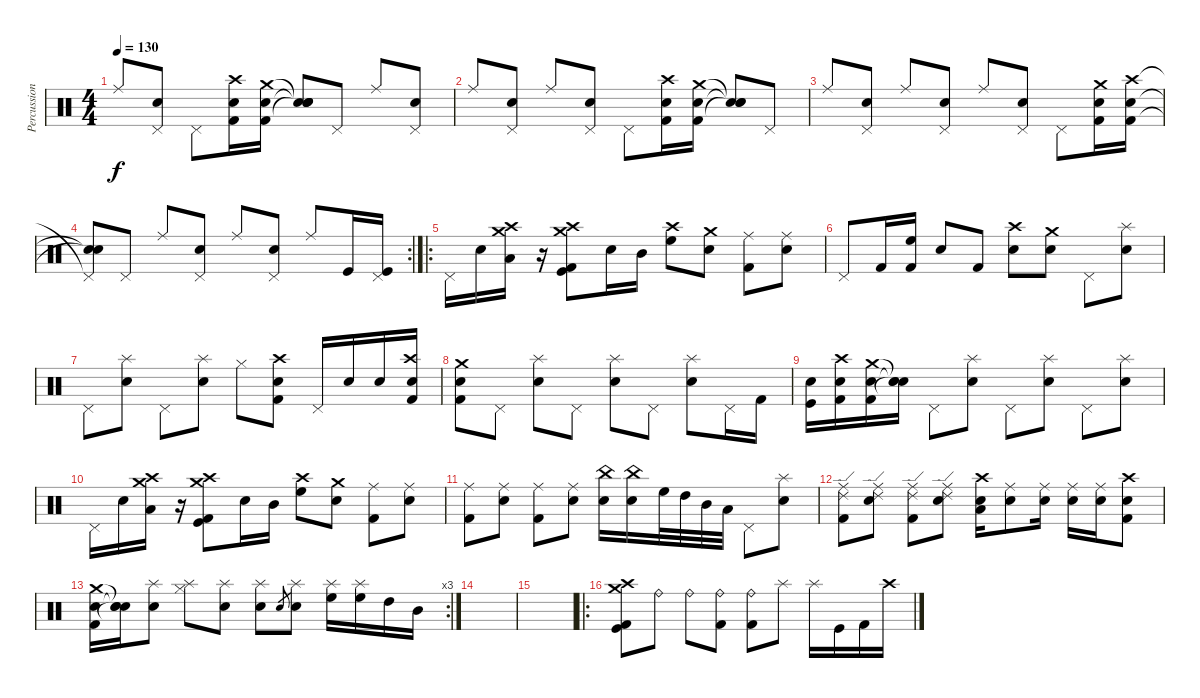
\track ("Percussion" "Percussion") {instrument percussion}
\staff {score}
\articulation defaults
\ts (4 4)
\tempo 130
\clef neutral
\ks c "Ride (middle)".8{dy f}
("Pedal Hi-Hat (hit)" "Electric Snare (hit)").8 "Pedal Hi-Hat (hit)".8 ("Crash high (hit)" "Electric Snare (hit)" "Kick (hit) 2").16 ("Crash medium (hit)" "Electric Snare (hit)" "Kick (hit) 2").16 ("Snare (hit)"{t} "Snare (hit)"{t} "Snare (hit)"{t} "Snare (hit)"{t}).8 "Pedal Hi-Hat (hit)".8 "Ride (middle)".8 ("Pedal Hi-Hat (hit)" "Electric Snare (hit)").8 |
"Ride (middle)".8 ("Pedal Hi-Hat (hit)" "Electric Snare (hit)").8 "Ride (middle)".8 ("Pedal Hi-Hat (hit)" "Electric Snare (hit)").8 "Pedal Hi-Hat (hit)".8 ("Crash high (hit)" "Electric Snare (hit)" "Kick (hit) 2").16 ("Crash medium (hit)" "Electric Snare (hit)" "Kick (hit) 2").16 ("Snare (hit)"{t} "Snare (hit)"{t} "Snare (hit)"{t}).8 "Pedal Hi-Hat (hit)".8 |
"Ride (middle)".8 ("Pedal Hi-Hat (hit)" "Electric Snare (hit)").8 "Ride (middle)".8 ("Pedal Hi-Hat (hit)" "Electric Snare (hit)").8 "Ride (middle)".8 ("Pedal Hi-Hat (hit)" "Electric Snare (hit)").8 "Pedal Hi-Hat (hit)".8 ("Crash medium (hit)" "Electric Snare (hit)" "Kick (hit) 2").16 ("Crash high (hit)" "Electric Snare (hit)" "Kick (hit) 2").16 |
\rc 2
("Pedal Hi-Hat (hit)"{t} "Snare (hit)"{t} "Snare (hit)"{t}).8 "Pedal Hi-Hat (hit)".8 "Ride (middle)".8 ("Pedal Hi-Hat (hit)" "Electric Snare (hit)").8 "Ride (middle)".8 ("Pedal Hi-Hat (hit)" "Electric Snare (hit)").8 "Ride (middle)".8 "Kick (hit)".16 ("Kick (hit)" "Pedal Hi-Hat (hit)").16 |
\ro "Pedal Hi-Hat (hit)".16 "Electric Snare (hit)".16
("Crash medium (hit)" "Crash high (hit)" "Low Tom (hit)").16 r.16 ("Crash medium (hit)" "Crash high (hit)" "Kick (hit) 2" "Kick (hit)").8 "Electric Snare (hit)".16 "Mid Tom (hit)".16 ("Crash high (hit)" "High Floor Tom (hit)").8 ("Crash medium (hit)" "Electric Snare (hit)").8 ("Ride (middle)" "Kick (hit) 2").8 ("Ride (middle)" "Snare (hit) 2").8 |
"Pedal Hi-Hat (hit)".8 "Kick (hit) 2".16 ("Kick (hit) 2" "High Floor Tom (hit)").16 "Electric Snare (hit)".8 "Kick (hit) 2".8 ("Crash high (hit)" "Electric Snare (hit)").8 ("Crash medium (hit)" "Snare (hit) 2").8 "Pedal Hi-Hat (hit)".8 ("Splash (hit)" "Electric Snare (hit)").8 |
"Pedal Hi-Hat (hit)".8 ("Splash (hit)" "Electric Snare (hit)").8 "Pedal Hi-Hat (hit)".8 ("Splash (hit)" "Electric Snare (hit)").8 "Hi-Hat (closed)".8 ("Crash high (hit)" "Electric Snare (hit)" "Kick (hit) 2").8 "Pedal Hi-Hat (hit)".16 "Electric Snare (hit)".16 "Electric Snare (hit)".16 ("Crash high (hit)" "Electric Snare (hit)" "Kick (hit) 2").16 |
("Crash medium (hit)" "Electric Snare (hit)" "Kick (hit) 2").8 "Pedal Hi-Hat (hit)".8 ("Splash (hit)" "Electric Snare (hit)").8 "Pedal Hi-Hat (hit)".8 ("Splash (hit)" "Electric Snare (hit)").8 "Pedal Hi-Hat (hit)".8 ("Splash (hit)" "Electric Snare (hit)").8 "Pedal Hi-Hat (hit)".16 "Kick (hit) 2".16 |
("Kick (hit)" "Electric Snare (hit)").16 ("Crash high (hit)" "Electric Snare (hit)" "Kick (hit) 2").16 ("Crash medium (hit)" "Electric Snare (hit)" "Kick (hit) 2").16 ("Snare (hit)"{t} "Snare (hit)"{t} "Snare (hit)"{t}).16 "Pedal Hi-Hat (hit)".8 ("Splash (hit)" "Electric Snare (hit)").8 "Pedal Hi-Hat (hit)".8 ("Splash (hit)" "Electric Snare (hit)").8 "Pedal Hi-Hat (hit)".8 ("Splash (hit)" "Electric Snare (hit)").8 |
"Pedal Hi-Hat (hit)".16 "Electric Snare (hit)".16 ("Crash medium (hit)" "Crash high (hit)" "Low Tom (hit)").16 r.16 ("Crash medium (hit)" "Crash high (hit)" "Kick (hit) 2" "Kick (hit)").8 "Electric Snare (hit)".16 "Mid Tom (hit)".16 ("Crash high (hit)" "High Floor Tom (hit)").8 ("Crash medium (hit)" "Electric Snare (hit)").8 ("Ride (middle)" "Kick (hit) 2").8 ("Ride (middle)" "Snare (hit) 2").8 |
("Ride (middle)" "Kick (hit) 2").8 ("Ride (middle)" "Snare (hit) 2").8 ("Ride (middle)" "Kick (hit) 2").8 ("Ride (middle)" "Snare (hit) 2").8 ("China (hit)" "Electric Snare (hit)").16 ("China (hit)" "Electric Snare (hit)").16 "High Floor Tom (hit)".32 "High Tom (hit)".32 "Mid Tom (hit)".32 "Low Tom (hit)".32 "Pedal Hi-Hat (hit)".8 ("Splash (hit)" "Electric Snare (hit)").8 |
("Ride (middle)" "Kick (hit) 2" "Ride (edge) 2").8 ("Ride (middle)" "Snare (hit) 2" "Ride (edge) 2").8 ("Ride (middle)" "Kick (hit) 2" "Ride (edge) 2").8 ("Ride (middle)" "Electric Snare (hit)" "Ride (edge) 2").8 ("Crash high (hit)" "Low Tom (hit)" "Snare (hit) 2").16 ("Ride (middle)" "Electric Snare (hit)").8 ("Ride (middle)" "Electric Snare (hit)").16 ("Ride (middle)" "Electric Snare (hit)").16 ("Ride (middle)" "Electric Snare (hit)").16 ("Crash high (hit)" "Electric Snare (hit)" "Kick (hit) 2").8 |
\rc 3
("Crash medium (hit)" "Electric Snare (hit)" "Kick (hit) 2").16 ("Snare (hit)"{t} "Snare (hit)"{t} "Snare (hit)"{t}).16 ("Splash (hit)" "Electric Snare (hit)").8 ("Splash (hit)" "Hi-Hat (closed)").8 ("Splash (hit)" "Electric Snare (hit)").8 ("Splash (hit)" "Electric Snare (hit)").8 "Snare (hit) 2".8{gr} ("Splash (hit)" "Snare (hit) 2").8 ("Splash (hit)" "High Floor Tom (hit)").16 ("Splash (hit)" "High Floor Tom (hit)").16 "High Tom (hit)".16 "Mid Tom (hit)".16 |
|
|
\ro
("Crash high (hit)" "Crash medium (hit)" "Kick (hit)" "Kick (hit) 2").8 "Ride (bell)".8 "Ride (bell)".8 ("Ride (bell)" "Kick (hit) 2").8 ("Ride (bell)" "Kick (hit) 2").8 "Splash (hit)".8 "Splash (hit)".16 "Kick (hit)".16 "Kick (hit) 2".16 "Crash high (hit)".16
